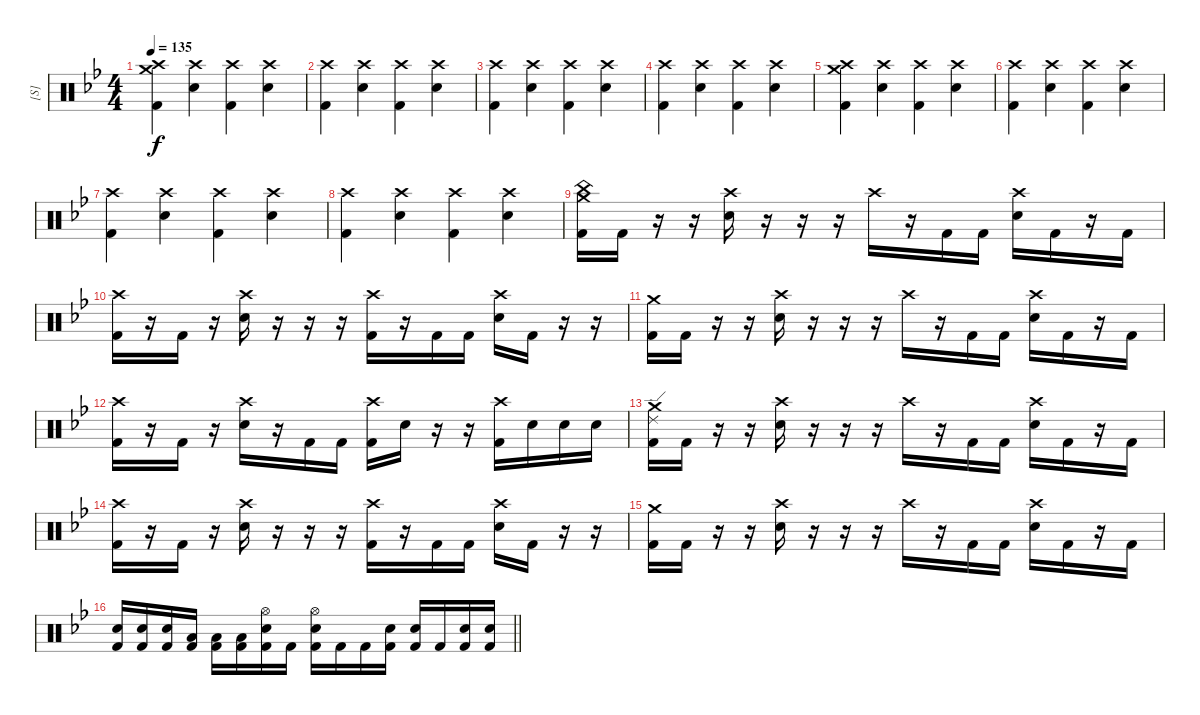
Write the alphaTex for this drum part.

\track ("[S]" "[S]") {instrument percussion}
\staff {score}
\articulation defaults
\ts (4 4)
\tempo 135
\clef neutral
\ks gminor
("Crash medium (hit)" "Crash high (hit)" "Kick (hit) 2").4{dy f} ("Crash high (hit)" "Electric Snare (hit)").4 ("Crash high (hit)" "Kick (hit) 2").4 ("Crash high (hit)" "Electric Snare (hit)").4 |
("Crash high (hit)" "Kick (hit) 2").4 ("Crash high (hit)" "Electric Snare (hit)").4 ("Crash high (hit)" "Kick (hit) 2").4 ("Crash high (hit)" "Electric Snare (hit)").4 |
("Crash high (hit)" "Kick (hit) 2").4 ("Crash high (hit)" "Electric Snare (hit)").4 ("Crash high (hit)" "Kick (hit) 2").4 ("Crash high (hit)" "Electric Snare (hit)").4 |
("Crash high (hit)" "Kick (hit) 2").4 ("Crash high (hit)" "Electric Snare (hit)").4 ("Crash high (hit)" "Kick (hit) 2").4 ("Crash high (hit)" "Electric Snare (hit)").4 |
("Crash medium (hit)" "Crash high (hit)" "Kick (hit) 2").4 ("Crash high (hit)" "Electric Snare (hit)").4 ("Crash high (hit)" "Kick (hit) 2").4 ("Crash high (hit)" "Electric Snare (hit)").4 |
("Crash high (hit)" "Kick (hit) 2").4 ("Crash high (hit)" "Electric Snare (hit)").4 ("Crash high (hit)" "Kick (hit) 2").4 ("Crash high (hit)" "Electric Snare (hit)").4 |
("Crash high (hit)" "Kick (hit) 2").4 ("Crash high (hit)" "Electric Snare (hit)").4 ("Crash high (hit)" "Kick (hit) 2").4 ("Crash high (hit)" "Electric Snare (hit)").4 |
("Crash high (hit)" "Kick (hit) 2").4 ("Crash high (hit)" "Electric Snare (hit)").4 ("Crash high (hit)" "Kick (hit) 2").4 ("Crash high (hit)" "Electric Snare (hit)").4 |
("Crash medium (hit)" "China (hit)" "Kick (hit) 2").16 "Kick (hit) 2".16 r.16 r.16 ("Crash high (hit)" "Electric Snare (hit)").16 r.16 r.16 r.16 "Crash high (hit)".16 r.16 "Kick (hit) 2".16 "Kick (hit) 2".16 ("Crash high (hit)" "Electric Snare (hit)").16 "Kick (hit) 2".16 r.16 "Kick (hit) 2".16 |
("Crash high (hit)" "Kick (hit) 2").16 r.16 "Kick (hit) 2".16 r.16 ("Crash high (hit)" "Electric Snare (hit)").16 r.16 r.16 r.16 ("Crash high (hit)" "Kick (hit) 2").16 r.16 "Kick (hit) 2".16 "Kick (hit) 2".16 ("Crash high (hit)" "Electric Snare (hit)").16 "Kick (hit) 2".16 r.16 r.16 |
("Crash medium (hit)" "Kick (hit) 2").16 "Kick (hit) 2".16 r.16 r.16 ("Crash high (hit)" "Electric Snare (hit)").16 r.16 r.16 r.16 "Crash high (hit)".16 r.16 "Kick (hit) 2".16 "Kick (hit) 2".16 ("Crash high (hit)" "Electric Snare (hit)").16 "Kick (hit) 2".16 r.16 "Kick (hit) 2".16 |
("Crash high (hit)" "Kick (hit) 2").16 r.16 "Kick (hit) 2".16 r.16 ("Crash high (hit)" "Electric Snare (hit)").16 r.16 "Kick (hit) 2".16 "Kick (hit) 2".16 ("Crash high (hit)" "Kick (hit) 2").16 "Electric Snare (hit)".16 r.16 r.16 ("Crash high (hit)" "Kick (hit) 2").16 "Electric Snare (hit)".16 "Electric Snare (hit)".16 "Electric Snare (hit)".16 |
("Crash medium (hit)" "Ride (edge) 2" "Kick (hit) 2").16 "Kick (hit) 2".16 r.16 r.16 ("Crash high (hit)" "Electric Snare (hit)").16 r.16 r.16 r.16 "Crash high (hit)".16 r.16 "Kick (hit) 2".16 "Kick (hit) 2".16 ("Crash high (hit)" "Electric Snare (hit)").16 "Kick (hit) 2".16 r.16 "Kick (hit) 2".16 |
("Crash high (hit)" "Kick (hit) 2").16 r.16 "Kick (hit) 2".16 r.16 ("Crash high (hit)" "Electric Snare (hit)").16 r.16 r.16 r.16 ("Crash high (hit)" "Kick (hit) 2").16 r.16 "Kick (hit) 2".16 "Kick (hit) 2".16 ("Crash high (hit)" "Electric Snare (hit)").16 "Kick (hit) 2".16 r.16 r.16 |
("Crash medium (hit)" "Kick (hit) 2").16 "Kick (hit) 2".16 r.16 r.16 ("Crash high (hit)" "Electric Snare (hit)").16 r.16 r.16 r.16 "Crash high (hit)".16 r.16 "Kick (hit) 2".16 "Kick (hit) 2".16 ("Crash high (hit)" "Electric Snare (hit)").16 "Kick (hit) 2".16 r.16 "Kick (hit) 2".16 |
\barLineRight lightlight
("Electric Snare (hit)" "Kick (hit) 2").16 ("Electric Snare (hit)" "Kick (hit) 2").16 ("Electric Snare (hit)" "Kick (hit) 2").16 ("Low Tom (hit)" "Kick (hit) 2").16 ("Low Tom (hit)" "Kick (hit) 2").16 ("Low Tom (hit)" "Kick (hit) 2").16 ("Hi-Hat (open)" "Electric Snare (hit)" "Kick (hit) 2").16 "Kick (hit) 2".16 ("Hi-Hat (open)" "Electric Snare (hit)" "Kick (hit) 2").16 "Kick (hit) 2".16 "Kick (hit) 2".16 ("Electric Snare (hit)" "Kick (hit) 2").16 ("Electric Snare (hit)" "Kick (hit) 2").16 "Kick (hit) 2".16 ("Electric Snare (hit)" "Kick (hit) 2").16 ("Electric Snare (hit)" "Kick (hit) 2").16
